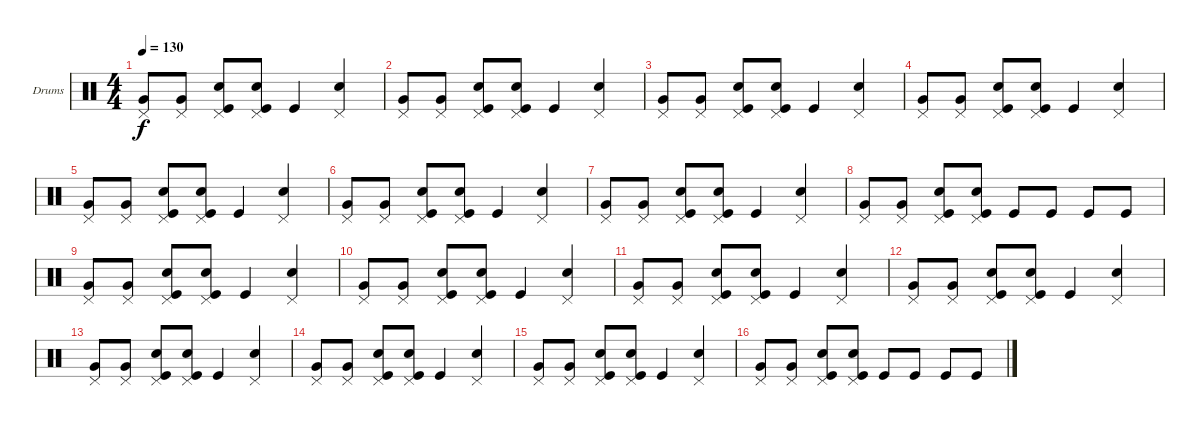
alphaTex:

\bracketExtendMode groupsimilarinstruments
\firstSystemTrackNameOrientation horizontal
\otherSystemsTrackNameOrientation horizontal
\track ("Drumkit" "Drums") {instrument percussion}
\staff {score}
\articulation defaults
\ts (4 4)
\tempo 130
\clef neutral
\ks c
("Very Low Tom (hit)" "Pedal Hi-Hat (hit)").8{dy f} ("Pedal Hi-Hat (hit)" "Very Low Tom (hit)").8 ("Kick (hit)" "Snare (hit) 2" "Pedal Hi-Hat (hit)").8 ("Kick (hit)" "Snare (hit) 2" "Pedal Hi-Hat (hit)").8 "Kick (hit)".4 ("Snare (hit) 2" "Pedal Hi-Hat (hit)").4 |
("Very Low Tom (hit)" "Pedal Hi-Hat (hit)").8 ("Pedal Hi-Hat (hit)" "Very Low Tom (hit)").8 ("Kick (hit)" "Snare (hit) 2" "Pedal Hi-Hat (hit)").8 ("Kick (hit)" "Snare (hit) 2" "Pedal Hi-Hat (hit)").8 "Kick (hit)".4 ("Snare (hit) 2" "Pedal Hi-Hat (hit)").4 |
("Very Low Tom (hit)" "Pedal Hi-Hat (hit)").8 ("Pedal Hi-Hat (hit)" "Very Low Tom (hit)").8 ("Kick (hit)" "Snare (hit) 2" "Pedal Hi-Hat (hit)").8 ("Kick (hit)" "Snare (hit) 2" "Pedal Hi-Hat (hit)").8 "Kick (hit)".4 ("Snare (hit) 2" "Pedal Hi-Hat (hit)").4 |
("Very Low Tom (hit)" "Pedal Hi-Hat (hit)").8 ("Pedal Hi-Hat (hit)" "Very Low Tom (hit)").8 ("Kick (hit)" "Snare (hit) 2" "Pedal Hi-Hat (hit)").8 ("Kick (hit)" "Snare (hit) 2" "Pedal Hi-Hat (hit)").8 "Kick (hit)".4 ("Snare (hit) 2" "Pedal Hi-Hat (hit)").4 |
("Very Low Tom (hit)" "Pedal Hi-Hat (hit)").8 ("Pedal Hi-Hat (hit)" "Very Low Tom (hit)").8 ("Kick (hit)" "Snare (hit) 2" "Pedal Hi-Hat (hit)").8 ("Kick (hit)" "Snare (hit) 2" "Pedal Hi-Hat (hit)").8 "Kick (hit)".4 ("Snare (hit) 2" "Pedal Hi-Hat (hit)").4 |
("Very Low Tom (hit)" "Pedal Hi-Hat (hit)").8 ("Pedal Hi-Hat (hit)" "Very Low Tom (hit)").8 ("Kick (hit)" "Snare (hit) 2" "Pedal Hi-Hat (hit)").8 ("Kick (hit)" "Snare (hit) 2" "Pedal Hi-Hat (hit)").8 "Kick (hit)".4 ("Snare (hit) 2" "Pedal Hi-Hat (hit)").4 |
("Very Low Tom (hit)" "Pedal Hi-Hat (hit)").8 ("Pedal Hi-Hat (hit)" "Very Low Tom (hit)").8 ("Kick (hit)" "Snare (hit) 2" "Pedal Hi-Hat (hit)").8 ("Kick (hit)" "Snare (hit) 2" "Pedal Hi-Hat (hit)").8 "Kick (hit)".4 ("Snare (hit) 2" "Pedal Hi-Hat (hit)").4 |
("Very Low Tom (hit)" "Pedal Hi-Hat (hit)").8 ("Pedal Hi-Hat (hit)" "Very Low Tom (hit)").8 ("Kick (hit)" "Snare (hit) 2" "Pedal Hi-Hat (hit)").8 ("Kick (hit)" "Snare (hit) 2" "Pedal Hi-Hat (hit)").8 "Kick (hit)".8 "Kick (hit)".8 "Kick (hit)".8 "Kick (hit)".8 |
("Very Low Tom (hit)" "Pedal Hi-Hat (hit)").8 ("Pedal Hi-Hat (hit)" "Very Low Tom (hit)").8 ("Kick (hit)" "Snare (hit) 2" "Pedal Hi-Hat (hit)").8 ("Kick (hit)" "Snare (hit) 2" "Pedal Hi-Hat (hit)").8 "Kick (hit)".4 ("Snare (hit) 2" "Pedal Hi-Hat (hit)").4 |
("Very Low Tom (hit)" "Pedal Hi-Hat (hit)").8 ("Pedal Hi-Hat (hit)" "Very Low Tom (hit)").8 ("Kick (hit)" "Snare (hit) 2" "Pedal Hi-Hat (hit)").8 ("Kick (hit)" "Snare (hit) 2" "Pedal Hi-Hat (hit)").8 "Kick (hit)".4 ("Snare (hit) 2" "Pedal Hi-Hat (hit)").4 |
("Very Low Tom (hit)" "Pedal Hi-Hat (hit)").8 ("Pedal Hi-Hat (hit)" "Very Low Tom (hit)").8 ("Kick (hit)" "Snare (hit) 2" "Pedal Hi-Hat (hit)").8 ("Kick (hit)" "Snare (hit) 2" "Pedal Hi-Hat (hit)").8 "Kick (hit)".4 ("Snare (hit) 2" "Pedal Hi-Hat (hit)").4 |
("Very Low Tom (hit)" "Pedal Hi-Hat (hit)").8 ("Pedal Hi-Hat (hit)" "Very Low Tom (hit)").8 ("Kick (hit)" "Snare (hit) 2" "Pedal Hi-Hat (hit)").8 ("Kick (hit)" "Snare (hit) 2" "Pedal Hi-Hat (hit)").8 "Kick (hit)".4 ("Snare (hit) 2" "Pedal Hi-Hat (hit)").4 |
("Very Low Tom (hit)" "Pedal Hi-Hat (hit)").8 ("Pedal Hi-Hat (hit)" "Very Low Tom (hit)").8 ("Kick (hit)" "Snare (hit) 2" "Pedal Hi-Hat (hit)").8 ("Kick (hit)" "Snare (hit) 2" "Pedal Hi-Hat (hit)").8 "Kick (hit)".4 ("Snare (hit) 2" "Pedal Hi-Hat (hit)").4 |
("Very Low Tom (hit)" "Pedal Hi-Hat (hit)").8 ("Pedal Hi-Hat (hit)" "Very Low Tom (hit)").8 ("Kick (hit)" "Snare (hit) 2" "Pedal Hi-Hat (hit)").8 ("Kick (hit)" "Snare (hit) 2" "Pedal Hi-Hat (hit)").8 "Kick (hit)".4 ("Snare (hit) 2" "Pedal Hi-Hat (hit)").4 |
("Very Low Tom (hit)" "Pedal Hi-Hat (hit)").8 ("Pedal Hi-Hat (hit)" "Very Low Tom (hit)").8 ("Kick (hit)" "Snare (hit) 2" "Pedal Hi-Hat (hit)").8 ("Kick (hit)" "Snare (hit) 2" "Pedal Hi-Hat (hit)").8 "Kick (hit)".4 ("Snare (hit) 2" "Pedal Hi-Hat (hit)").4 |
("Very Low Tom (hit)" "Pedal Hi-Hat (hit)").8 ("Pedal Hi-Hat (hit)" "Very Low Tom (hit)").8 ("Kick (hit)" "Snare (hit) 2" "Pedal Hi-Hat (hit)").8 ("Kick (hit)" "Snare (hit) 2" "Pedal Hi-Hat (hit)").8 "Kick (hit)".8 "Kick (hit)".8 "Kick (hit)".8 "Kick (hit)".8
